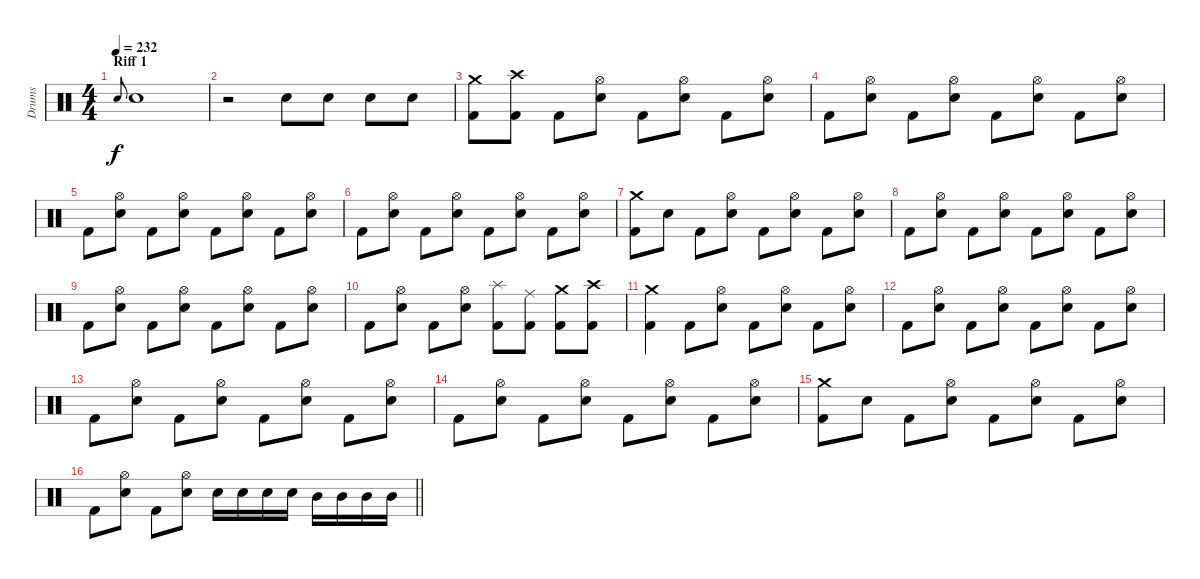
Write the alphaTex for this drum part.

\track ("Drums" "Drums") {instrument percussion}
\staff {score}
\articulation defaults
\ts (4 4)
\section ("" "Riff 1")
\tempo 232
\clef neutral
\ks c "Electric Snare (hit)".8{gr onbeat dy f} "Electric Snare (hit)".1
|
r.2 "Electric Snare (hit)".8 "Electric Snare (hit)".8 "Electric Snare (hit)".8 "Electric Snare (hit)".8 |
("Crash medium (hit)" "Kick (hit) 2").8 ("Crash high (hit)" "Kick (hit) 2").8 "Kick (hit) 2".8 ("Hi-Hat (open)" "Electric Snare (hit)").8 "Kick (hit) 2".8 ("Hi-Hat (open)" "Electric Snare (hit)").8 "Kick (hit) 2".8 ("Hi-Hat (open)" "Electric Snare (hit)").8 |
"Kick (hit) 2".8 ("Hi-Hat (open)" "Electric Snare (hit)").8 "Kick (hit) 2".8 ("Hi-Hat (open)" "Electric Snare (hit)").8 "Kick (hit) 2".8 ("Hi-Hat (open)" "Electric Snare (hit)").8 "Kick (hit) 2".8 ("Hi-Hat (open)" "Electric Snare (hit)").8 |
"Kick (hit) 2".8 ("Hi-Hat (open)" "Electric Snare (hit)").8 "Kick (hit) 2".8 ("Hi-Hat (open)" "Electric Snare (hit)").8 "Kick (hit) 2".8 ("Hi-Hat (open)" "Electric Snare (hit)").8 "Kick (hit) 2".8 ("Hi-Hat (open)" "Electric Snare (hit)").8 |
"Kick (hit) 2".8 ("Hi-Hat (open)" "Electric Snare (hit)").8 "Kick (hit) 2".8 ("Hi-Hat (open)" "Electric Snare (hit)").8 "Kick (hit) 2".8 ("Hi-Hat (open)" "Electric Snare (hit)").8 "Kick (hit) 2".8 ("Hi-Hat (open)" "Electric Snare (hit)").8 |
("Crash medium (hit)" "Kick (hit) 2").8 "Electric Snare (hit)".8 "Kick (hit) 2".8 ("Hi-Hat (open)" "Electric Snare (hit)").8 "Kick (hit) 2".8 ("Hi-Hat (open)" "Electric Snare (hit)").8 "Kick (hit) 2".8 ("Hi-Hat (open)" "Electric Snare (hit)").8 |
"Kick (hit) 2".8 ("Hi-Hat (open)" "Electric Snare (hit)").8 "Kick (hit) 2".8 ("Hi-Hat (open)" "Electric Snare (hit)").8 "Kick (hit) 2".8 ("Hi-Hat (open)" "Electric Snare (hit)").8 "Kick (hit) 2".8 ("Hi-Hat (open)" "Electric Snare (hit)").8 |
"Kick (hit) 2".8 ("Hi-Hat (open)" "Electric Snare (hit)").8 "Kick (hit) 2".8 ("Hi-Hat (open)" "Electric Snare (hit)").8 "Kick (hit) 2".8 ("Hi-Hat (open)" "Electric Snare (hit)").8 "Kick (hit) 2".8 ("Hi-Hat (open)" "Electric Snare (hit)").8 |
"Kick (hit) 2".8 ("Electric Snare (hit)" "Hi-Hat (open)").8 "Kick (hit) 2".8 ("Electric Snare (hit)" "Hi-Hat (open)").8 ("Kick (hit) 2" "Splash (hit)").8 ("Ride (middle)" "Kick (hit) 2").8 ("Crash medium (hit)" "Kick (hit) 2").8 ("Crash high (hit)" "Kick (hit) 2").8 |
("Kick (hit) 2" "Crash medium (hit)").4 "Kick (hit) 2".8 ("Electric Snare (hit)" "Hi-Hat (open)").8 "Kick (hit) 2".8 ("Electric Snare (hit)" "Hi-Hat (open)").8 "Kick (hit) 2".8 ("Electric Snare (hit)" "Hi-Hat (open)").8 |
"Kick (hit) 2".8 ("Electric Snare (hit)" "Hi-Hat (open)").8 "Kick (hit) 2".8 ("Electric Snare (hit)" "Hi-Hat (open)").8 "Kick (hit) 2".8 ("Electric Snare (hit)" "Hi-Hat (open)").8 "Kick (hit) 2".8 ("Electric Snare (hit)" "Hi-Hat (open)").8 |
"Kick (hit) 2".8 ("Electric Snare (hit)" "Hi-Hat (open)").8 "Kick (hit) 2".8 ("Electric Snare (hit)" "Hi-Hat (open)").8 "Kick (hit) 2".8 ("Electric Snare (hit)" "Hi-Hat (open)").8 "Kick (hit) 2".8 ("Electric Snare (hit)" "Hi-Hat (open)").8 |
"Kick (hit) 2".8 ("Electric Snare (hit)" "Hi-Hat (open)").8 "Kick (hit) 2".8 ("Electric Snare (hit)" "Hi-Hat (open)").8 "Kick (hit) 2".8 ("Electric Snare (hit)" "Hi-Hat (open)").8 "Kick (hit) 2".8 ("Electric Snare (hit)" "Hi-Hat (open)").8 |
("Kick (hit) 2" "Crash medium (hit)").8 "Electric Snare (hit)".8 "Kick (hit) 2".8 ("Electric Snare (hit)" "Hi-Hat (open)").8 "Kick (hit) 2".8 ("Electric Snare (hit)" "Hi-Hat (open)").8 "Kick (hit) 2".8 ("Electric Snare (hit)" "Hi-Hat (open)").8 |
\barLineRight lightlight "Kick (hit) 2".8
("Electric Snare (hit)" "Hi-Hat (open)").8 "Kick (hit) 2".8 ("Electric Snare (hit)" "Hi-Hat (open)").8 "Electric Snare (hit)".16 "Electric Snare (hit)".16 "Electric Snare (hit)".16 "Electric Snare (hit)".16 "Mid Tom (hit)".16 "Mid Tom (hit)".16 "Mid Tom (hit)".16 "Mid Tom (hit)".16
